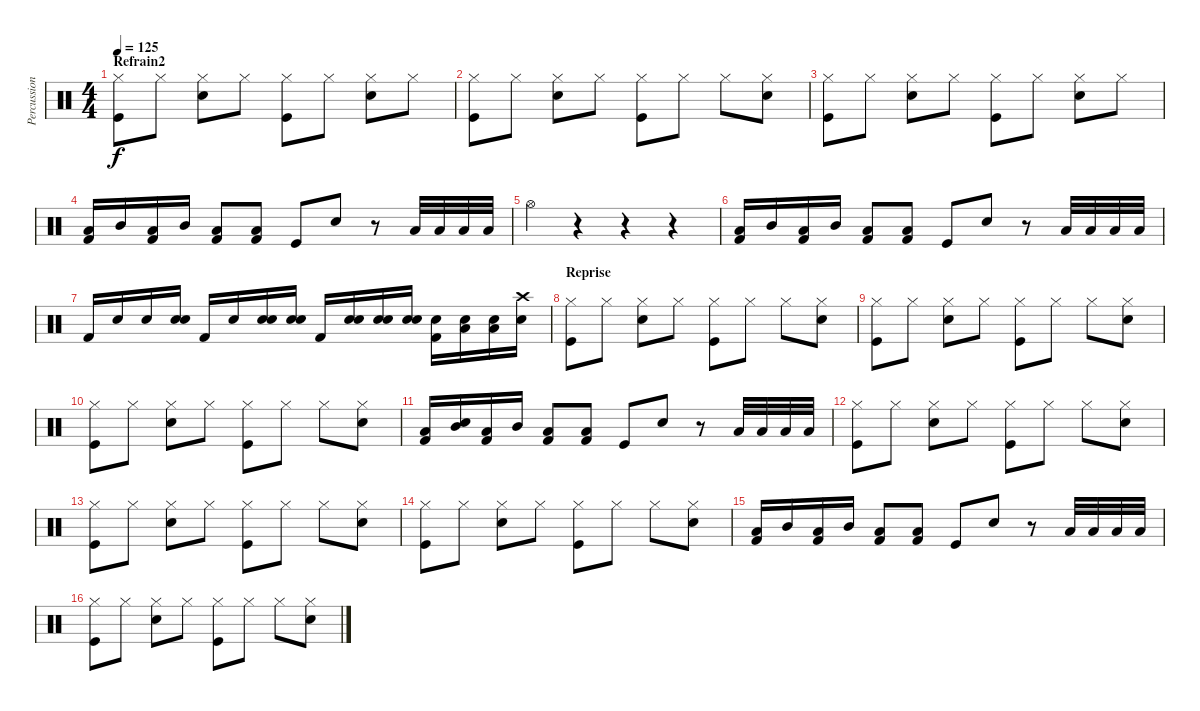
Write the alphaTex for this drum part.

\track ("Percussions" "Percussion") {instrument percussion}
\staff {score}
\articulation defaults
\ts (4 4)
\section ("" "Refrain2")
\tempo 125
\clef neutral
\ks c
("Hi-Hat (closed)" "Kick (hit)").8{dy f} "Hi-Hat (closed)".8 ("Hi-Hat (closed)" "Snare (hit) 2").8 "Hi-Hat (closed)".8 ("Hi-Hat (closed)" "Kick (hit)").8 "Hi-Hat (closed)".8 ("Hi-Hat (closed)" "Snare (hit) 2").8 "Hi-Hat (closed)".8 |
("Hi-Hat (closed)" "Kick (hit)").8 "Hi-Hat (closed)".8 ("Hi-Hat (closed)" "Snare (hit) 2").8 "Hi-Hat (closed)".8 ("Hi-Hat (closed)" "Kick (hit)").8 "Hi-Hat (closed)".8 "Hi-Hat (closed)".8 ("Hi-Hat (closed)" "Snare (hit) 2").8 |
("Hi-Hat (closed)" "Kick (hit)").8 "Hi-Hat (closed)".8 ("Hi-Hat (closed)" "Snare (hit) 2").8 "Hi-Hat (closed)".8 ("Hi-Hat (closed)" "Kick (hit)").8 "Hi-Hat (closed)".8 ("Hi-Hat (closed)" "Snare (hit) 2").8 "Hi-Hat (closed)".8 |
("Low Tom (hit)" "Kick (hit) 2").16 "Mid Tom (hit)".16 ("Low Tom (hit)" "Kick (hit) 2").16 "Mid Tom (hit)".16 ("Low Tom (hit)" "Kick (hit) 2").8 ("Low Tom (hit)" "Kick (hit) 2").8 "Kick (hit)".8 "Snare (hit) 2".8 r.8 "Low Tom (hit)".32 "Low Tom (hit)".32 "Low Tom (hit)".32 "Low Tom (hit)".32 |
"Hi-Hat (open)".4 r.4 r.4 r.4 |
\section ("" "")
("Low Tom (hit)" "Kick (hit) 2").16 "Mid Tom (hit)".16 ("Low Tom (hit)" "Kick (hit) 2").16 "Mid Tom (hit)".16 ("Low Tom (hit)" "Kick (hit) 2").8 ("Low Tom (hit)" "Kick (hit) 2").8 "Kick (hit)".8 "Snare (hit) 2".8 r.8 "Low Tom (hit)".32 "Low Tom (hit)".32 "Low Tom (hit)".32 "Low Tom (hit)".32 |
"Kick (hit) 2".16 "Snare (hit)".16 "Snare (hit)".16 ("Snare (hit) 2" "Snare (hit)").16 "Kick (hit) 2".16 "Snare (hit)".16 ("Snare (hit) 2" "Snare (hit)").16 ("Snare (hit) 2" "Snare (hit)").16 "Kick (hit) 2".16 ("Snare (hit) 2" "Snare (hit)").16 ("Snare (hit) 2" "Snare (hit)").16 ("Snare (hit) 2" "Snare (hit)").16 ("Snare (hit) 2" "Kick (hit) 2").16 ("Low Floor Tom (hit)" "Snare (hit)").16 ("Low Floor Tom (hit)" "Snare (hit)").16 ("Crash high (hit)" "Snare (hit)").16 |
\section ("" "Reprise")
("Hi-Hat (closed)" "Kick (hit)").8 "Hi-Hat (closed)".8 ("Hi-Hat (closed)" "Snare (hit) 2").8 "Hi-Hat (closed)".8 ("Hi-Hat (closed)" "Kick (hit)").8 "Hi-Hat (closed)".8 "Hi-Hat (closed)".8 ("Hi-Hat (closed)" "Snare (hit) 2").8 |
("Hi-Hat (closed)" "Kick (hit)").8 "Hi-Hat (closed)".8 ("Hi-Hat (closed)" "Snare (hit) 2").8 "Hi-Hat (closed)".8 ("Hi-Hat (closed)" "Kick (hit)").8 "Hi-Hat (closed)".8 "Hi-Hat (closed)".8 ("Hi-Hat (closed)" "Snare (hit) 2").8 |
("Hi-Hat (closed)" "Kick (hit)").8 "Hi-Hat (closed)".8 ("Hi-Hat (closed)" "Snare (hit) 2").8 "Hi-Hat (closed)".8 ("Hi-Hat (closed)" "Kick (hit)").8 "Hi-Hat (closed)".8 "Hi-Hat (closed)".8 ("Hi-Hat (closed)" "Snare (hit) 2").8 |
("Low Tom (hit)" "Kick (hit) 2").16 ("Mid Tom (hit)" "Snare (hit) 2").16 ("Low Tom (hit)" "Kick (hit) 2").16 "Mid Tom (hit)".16 ("Low Tom (hit)" "Kick (hit) 2").8 ("Low Tom (hit)" "Kick (hit) 2").8 "Kick (hit)".8 "Snare (hit) 2".8 r.8 "Low Tom (hit)".32 "Low Tom (hit)".32 "Low Tom (hit)".32 "Low Tom (hit)".32 |
("Hi-Hat (closed)" "Kick (hit)").8 "Hi-Hat (closed)".8 ("Hi-Hat (closed)" "Snare (hit) 2").8 "Hi-Hat (closed)".8 ("Hi-Hat (closed)" "Kick (hit)").8 "Hi-Hat (closed)".8 "Hi-Hat (closed)".8 ("Hi-Hat (closed)" "Snare (hit) 2").8 |
("Hi-Hat (closed)" "Kick (hit)").8 "Hi-Hat (closed)".8 ("Hi-Hat (closed)" "Snare (hit) 2").8 "Hi-Hat (closed)".8 ("Hi-Hat (closed)" "Kick (hit)").8 "Hi-Hat (closed)".8 "Hi-Hat (closed)".8 ("Hi-Hat (closed)" "Snare (hit) 2").8 |
("Hi-Hat (closed)" "Kick (hit)").8 "Hi-Hat (closed)".8 ("Hi-Hat (closed)" "Snare (hit) 2").8 "Hi-Hat (closed)".8 ("Hi-Hat (closed)" "Kick (hit)").8 "Hi-Hat (closed)".8 "Hi-Hat (closed)".8 ("Hi-Hat (closed)" "Snare (hit) 2").8 |
("Low Tom (hit)" "Kick (hit) 2").16 "Mid Tom (hit)".16 ("Low Tom (hit)" "Kick (hit) 2").16 "Mid Tom (hit)".16 ("Low Tom (hit)" "Kick (hit) 2").8 ("Low Tom (hit)" "Kick (hit) 2").8 "Kick (hit)".8 "Snare (hit) 2".8 r.8 "Low Tom (hit)".32 "Low Tom (hit)".32 "Low Tom (hit)".32 "Low Tom (hit)".32 |
("Hi-Hat (closed)" "Kick (hit)").8 "Hi-Hat (closed)".8 ("Hi-Hat (closed)" "Snare (hit) 2").8 "Hi-Hat (closed)".8 ("Hi-Hat (closed)" "Kick (hit)").8 "Hi-Hat (closed)".8 "Hi-Hat (closed)".8 ("Hi-Hat (closed)" "Snare (hit) 2").8
